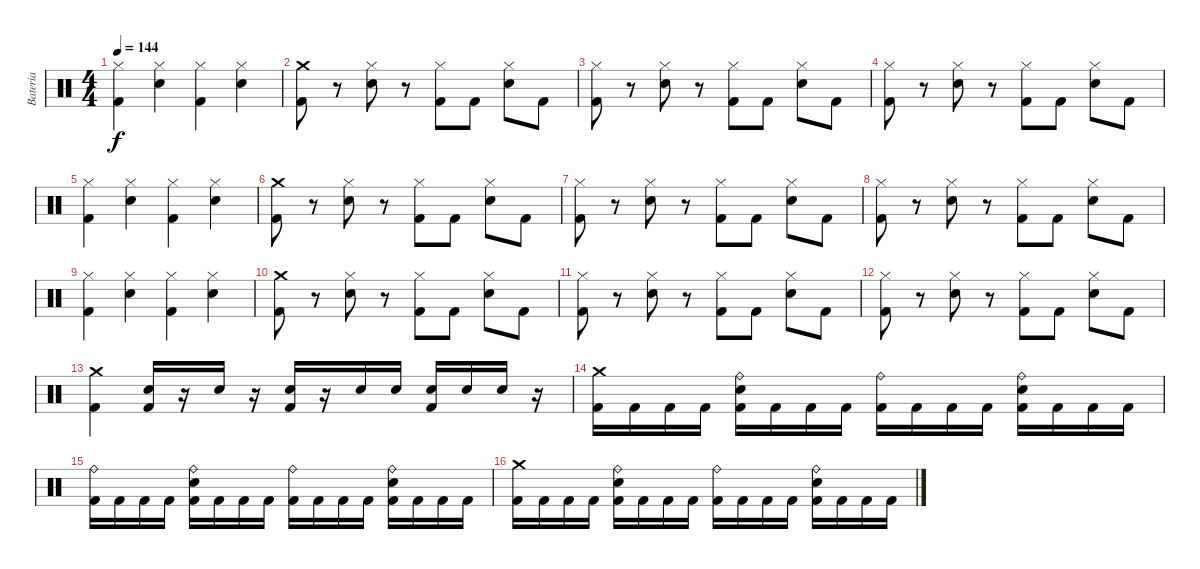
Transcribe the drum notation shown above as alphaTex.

\track ("Bateria" "Bateria") {instrument percussion}
\staff {score}
\articulation defaults
\ts (4 4)
\tempo 144
\clef neutral
\ks c
("Hi-Hat (closed)" "Kick (hit) 2").4{dy f} ("Hi-Hat (closed)" "Electric Snare (hit)").4 ("Hi-Hat (closed)" "Kick (hit) 2").4 ("Hi-Hat (closed)" "Electric Snare (hit)").4 |
("Crash medium (hit)" "Kick (hit) 2").8 r.8 ("Hi-Hat (closed)" "Electric Snare (hit)").8 r.8 ("Hi-Hat (closed)" "Kick (hit) 2").8 "Kick (hit) 2".8 ("Hi-Hat (closed)" "Electric Snare (hit)").8 "Kick (hit) 2".8 |
("Hi-Hat (closed)" "Kick (hit) 2").8 r.8 ("Hi-Hat (closed)" "Electric Snare (hit)").8 r.8 ("Hi-Hat (closed)" "Kick (hit) 2").8 "Kick (hit) 2".8 ("Hi-Hat (closed)" "Electric Snare (hit)").8 "Kick (hit) 2".8 |
("Hi-Hat (closed)" "Kick (hit) 2").8 r.8 ("Hi-Hat (closed)" "Electric Snare (hit)").8 r.8 ("Hi-Hat (closed)" "Kick (hit) 2").8 "Kick (hit) 2".8 ("Hi-Hat (closed)" "Electric Snare (hit)").8 "Kick (hit) 2".8 |
("Hi-Hat (closed)" "Kick (hit) 2").4 ("Hi-Hat (closed)" "Electric Snare (hit)").4 ("Hi-Hat (closed)" "Kick (hit) 2").4 ("Hi-Hat (closed)" "Electric Snare (hit)").4 |
("Crash medium (hit)" "Kick (hit) 2").8 r.8 ("Hi-Hat (closed)" "Electric Snare (hit)").8 r.8 ("Hi-Hat (closed)" "Kick (hit) 2").8 "Kick (hit) 2".8 ("Hi-Hat (closed)" "Electric Snare (hit)").8 "Kick (hit) 2".8 |
("Hi-Hat (closed)" "Kick (hit) 2").8 r.8 ("Hi-Hat (closed)" "Electric Snare (hit)").8 r.8 ("Hi-Hat (closed)" "Kick (hit) 2").8 "Kick (hit) 2".8 ("Hi-Hat (closed)" "Electric Snare (hit)").8 "Kick (hit) 2".8 |
("Hi-Hat (closed)" "Kick (hit) 2").8 r.8 ("Hi-Hat (closed)" "Electric Snare (hit)").8 r.8 ("Hi-Hat (closed)" "Kick (hit) 2").8 "Kick (hit) 2".8 ("Hi-Hat (closed)" "Electric Snare (hit)").8 "Kick (hit) 2".8 |
("Hi-Hat (closed)" "Kick (hit) 2").4 ("Hi-Hat (closed)" "Electric Snare (hit)").4 ("Hi-Hat (closed)" "Kick (hit) 2").4 ("Hi-Hat (closed)" "Electric Snare (hit)").4 |
("Crash medium (hit)" "Kick (hit) 2").8 r.8 ("Hi-Hat (closed)" "Electric Snare (hit)").8 r.8 ("Hi-Hat (closed)" "Kick (hit) 2").8 "Kick (hit) 2".8 ("Hi-Hat (closed)" "Electric Snare (hit)").8 "Kick (hit) 2".8 |
("Hi-Hat (closed)" "Kick (hit) 2").8 r.8 ("Hi-Hat (closed)" "Electric Snare (hit)").8 r.8 ("Hi-Hat (closed)" "Kick (hit) 2").8 "Kick (hit) 2".8 ("Hi-Hat (closed)" "Electric Snare (hit)").8 "Kick (hit) 2".8 |
("Hi-Hat (closed)" "Kick (hit) 2").8 r.8 ("Hi-Hat (closed)" "Electric Snare (hit)").8 r.8 ("Hi-Hat (closed)" "Kick (hit) 2").8 "Kick (hit) 2".8 ("Hi-Hat (closed)" "Electric Snare (hit)").8 "Kick (hit) 2".8 |
("Crash medium (hit)" "Kick (hit) 2").4 ("Electric Snare (hit)" "Kick (hit) 2").16 r.16 "Electric Snare (hit)".16 r.16 ("Electric Snare (hit)" "Kick (hit) 2").16 r.16 "Electric Snare (hit)".16 "Electric Snare (hit)".16 ("Electric Snare (hit)" "Kick (hit) 2").16 "Electric Snare (hit)".16 "Electric Snare (hit)".16 r.16 |
("Crash medium (hit)" "Kick (hit) 2").16 "Kick (hit) 2".16 "Kick (hit) 2".16 "Kick (hit) 2".16 ("Ride (bell)" "Electric Snare (hit)" "Kick (hit) 2").16 "Kick (hit) 2".16 "Kick (hit) 2".16 "Kick (hit) 2".16 ("Ride (bell)" "Kick (hit) 2").16 "Kick (hit) 2".16 "Kick (hit) 2".16 "Kick (hit) 2".16 ("Ride (bell)" "Electric Snare (hit)" "Kick (hit) 2").16 "Kick (hit) 2".16 "Kick (hit) 2".16 "Kick (hit) 2".16 |
("Ride (bell)" "Kick (hit) 2").16 "Kick (hit) 2".16 "Kick (hit) 2".16 "Kick (hit) 2".16 ("Ride (bell)" "Electric Snare (hit)" "Kick (hit) 2").16 "Kick (hit) 2".16 "Kick (hit) 2".16 "Kick (hit) 2".16 ("Ride (bell)" "Kick (hit) 2").16 "Kick (hit) 2".16 "Kick (hit) 2".16 "Kick (hit) 2".16 ("Ride (bell)" "Electric Snare (hit)" "Kick (hit) 2").16 "Kick (hit) 2".16 "Kick (hit) 2".16 "Kick (hit) 2".16 |
("Crash medium (hit)" "Kick (hit) 2").16 "Kick (hit) 2".16 "Kick (hit) 2".16 "Kick (hit) 2".16 ("Ride (bell)" "Electric Snare (hit)" "Kick (hit) 2").16 "Kick (hit) 2".16 "Kick (hit) 2".16 "Kick (hit) 2".16 ("Ride (bell)" "Kick (hit) 2").16 "Kick (hit) 2".16 "Kick (hit) 2".16 "Kick (hit) 2".16 ("Ride (bell)" "Electric Snare (hit)" "Kick (hit) 2").16 "Kick (hit) 2".16 "Kick (hit) 2".16 "Kick (hit) 2".16
